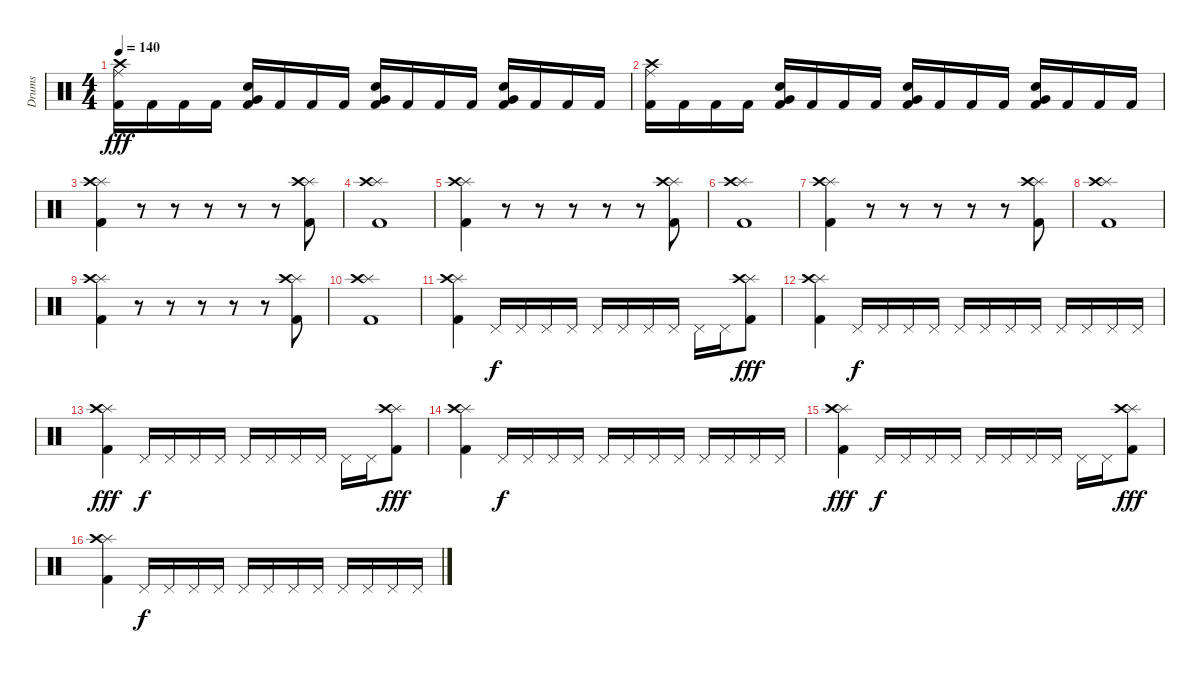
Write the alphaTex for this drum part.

\track ("Drums" "Drums") {instrument percussion}
\staff {score}
\articulation defaults
\ts (4 4)
\tempo 140
\clef neutral
\ks c
("Crash high (hit)" "Ride (middle)" "Kick (hit) 2").16{dy fff} "Kick (hit) 2".16 "Kick (hit) 2".16 "Kick (hit) 2".16 ("Very Low Tom (hit)" "Snare (hit) 2" "Kick (hit) 2").16 "Kick (hit) 2".16 "Kick (hit) 2".16 "Kick (hit) 2".16 ("Very Low Tom (hit)" "Snare (hit) 2" "Kick (hit) 2").16 "Kick (hit) 2".16 "Kick (hit) 2".16 "Kick (hit) 2".16 ("Very Low Tom (hit)" "Snare (hit) 2" "Kick (hit) 2").16 "Kick (hit) 2".16 "Kick (hit) 2".16 "Kick (hit) 2".16 |
("Crash high (hit)" "Ride (middle)" "Kick (hit) 2").16 "Kick (hit) 2".16 "Kick (hit) 2".16 "Kick (hit) 2".16 ("Very Low Tom (hit)" "Snare (hit) 2" "Kick (hit) 2").16 "Kick (hit) 2".16 "Kick (hit) 2".16 "Kick (hit) 2".16 ("Very Low Tom (hit)" "Snare (hit) 2" "Kick (hit) 2").16 "Kick (hit) 2".16 "Kick (hit) 2".16 "Kick (hit) 2".16 ("Very Low Tom (hit)" "Snare (hit) 2" "Kick (hit) 2").16 "Kick (hit) 2".16 "Kick (hit) 2".16 "Kick (hit) 2".16 |
("Splash (hit)" "Crash high (hit)" "Kick (hit) 2").4 r.8 r.8 r.8 r.8 r.8 ("Splash (hit)" "Crash high (hit)" "Kick (hit) 2").8 |
("Splash (hit)" "Crash high (hit)" "Kick (hit) 2").1 |
("Splash (hit)" "Crash high (hit)" "Kick (hit) 2").4 r.8 r.8 r.8 r.8 r.8 ("Splash (hit)" "Crash high (hit)" "Kick (hit) 2").8 |
("Splash (hit)" "Crash high (hit)" "Kick (hit) 2").1 |
("Splash (hit)" "Crash high (hit)" "Kick (hit) 2").4 r.8 r.8 r.8 r.8 r.8 ("Splash (hit)" "Crash high (hit)" "Kick (hit) 2").8 |
("Splash (hit)" "Crash high (hit)" "Kick (hit) 2").1 |
("Splash (hit)" "Crash high (hit)" "Kick (hit) 2").4 r.8 r.8 r.8 r.8 r.8 ("Splash (hit)" "Crash high (hit)" "Kick (hit) 2").8 |
("Splash (hit)" "Crash high (hit)" "Kick (hit) 2").1 |
("Splash (hit)" "Crash high (hit)" "Kick (hit) 2").4 "Pedal Hi-Hat (hit)".16{dy f} "Pedal Hi-Hat (hit)".16 "Pedal Hi-Hat (hit)".16 "Pedal Hi-Hat (hit)".16 "Pedal Hi-Hat (hit)".16 "Pedal Hi-Hat (hit)".16 "Pedal Hi-Hat (hit)".16 "Pedal Hi-Hat (hit)".16 "Pedal Hi-Hat (hit)".16 "Pedal Hi-Hat (hit)".16 ("Splash (hit)" "Crash high (hit)" "Kick (hit) 2").8{dy fff} |
("Splash (hit)" "Crash high (hit)" "Kick (hit) 2").4 "Pedal Hi-Hat (hit)".16{dy f} "Pedal Hi-Hat (hit)".16 "Pedal Hi-Hat (hit)".16 "Pedal Hi-Hat (hit)".16 "Pedal Hi-Hat (hit)".16 "Pedal Hi-Hat (hit)".16 "Pedal Hi-Hat (hit)".16 "Pedal Hi-Hat (hit)".16 "Pedal Hi-Hat (hit)".16 "Pedal Hi-Hat (hit)".16 "Pedal Hi-Hat (hit)".16 "Pedal Hi-Hat (hit)".16 |
("Splash (hit)" "Crash high (hit)" "Kick (hit) 2").4{dy fff} "Pedal Hi-Hat (hit)".16{dy f} "Pedal Hi-Hat (hit)".16 "Pedal Hi-Hat (hit)".16 "Pedal Hi-Hat (hit)".16 "Pedal Hi-Hat (hit)".16 "Pedal Hi-Hat (hit)".16 "Pedal Hi-Hat (hit)".16 "Pedal Hi-Hat (hit)".16 "Pedal Hi-Hat (hit)".16 "Pedal Hi-Hat (hit)".16 ("Splash (hit)" "Crash high (hit)" "Kick (hit) 2").8{dy fff} |
("Splash (hit)" "Crash high (hit)" "Kick (hit) 2").4 "Pedal Hi-Hat (hit)".16{dy f} "Pedal Hi-Hat (hit)".16 "Pedal Hi-Hat (hit)".16 "Pedal Hi-Hat (hit)".16 "Pedal Hi-Hat (hit)".16 "Pedal Hi-Hat (hit)".16 "Pedal Hi-Hat (hit)".16 "Pedal Hi-Hat (hit)".16 "Pedal Hi-Hat (hit)".16 "Pedal Hi-Hat (hit)".16 "Pedal Hi-Hat (hit)".16 "Pedal Hi-Hat (hit)".16 |
("Splash (hit)" "Crash high (hit)" "Kick (hit) 2").4{dy fff} "Pedal Hi-Hat (hit)".16{dy f} "Pedal Hi-Hat (hit)".16 "Pedal Hi-Hat (hit)".16 "Pedal Hi-Hat (hit)".16 "Pedal Hi-Hat (hit)".16 "Pedal Hi-Hat (hit)".16 "Pedal Hi-Hat (hit)".16 "Pedal Hi-Hat (hit)".16 "Pedal Hi-Hat (hit)".16 "Pedal Hi-Hat (hit)".16 ("Splash (hit)" "Crash high (hit)" "Kick (hit) 2").8{dy fff} |
("Splash (hit)" "Crash high (hit)" "Kick (hit) 2").4 "Pedal Hi-Hat (hit)".16{dy f} "Pedal Hi-Hat (hit)".16 "Pedal Hi-Hat (hit)".16 "Pedal Hi-Hat (hit)".16 "Pedal Hi-Hat (hit)".16 "Pedal Hi-Hat (hit)".16 "Pedal Hi-Hat (hit)".16 "Pedal Hi-Hat (hit)".16 "Pedal Hi-Hat (hit)".16 "Pedal Hi-Hat (hit)".16 "Pedal Hi-Hat (hit)".16 "Pedal Hi-Hat (hit)".16
